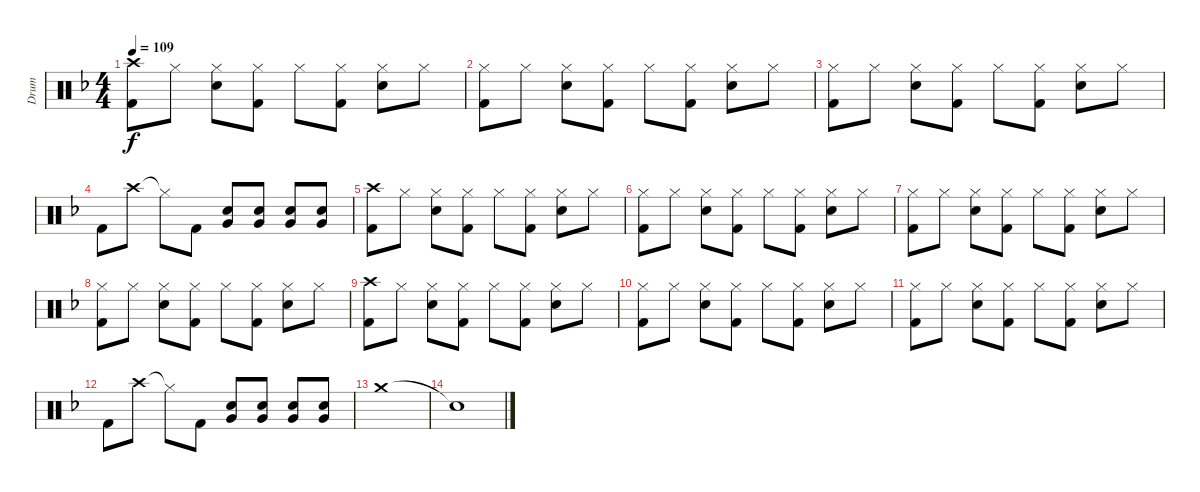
\track ("Drum" "Drum") {instrument percussion}
\staff {score}
\articulation defaults
\ts (4 4)
\tempo 109
\clef neutral
\ks f
("Crash high (hit)" "Kick (hit) 2").8{dy f} "Hi-Hat (closed)".8 ("Hi-Hat (closed)" "Electric Snare (hit)").8 ("Hi-Hat (closed)" "Kick (hit) 2").8 "Hi-Hat (closed)".8 ("Hi-Hat (closed)" "Kick (hit) 2").8 ("Hi-Hat (closed)" "Electric Snare (hit)").8 "Hi-Hat (closed)".8 |
("Hi-Hat (closed)" "Kick (hit) 2").8 "Hi-Hat (closed)".8 ("Hi-Hat (closed)" "Electric Snare (hit)").8 ("Hi-Hat (closed)" "Kick (hit) 2").8 "Hi-Hat (closed)".8 ("Hi-Hat (closed)" "Kick (hit) 2").8 ("Hi-Hat (closed)" "Electric Snare (hit)").8 "Hi-Hat (closed)".8 |
("Hi-Hat (closed)" "Kick (hit) 2").8 "Hi-Hat (closed)".8 ("Hi-Hat (closed)" "Electric Snare (hit)").8 ("Hi-Hat (closed)" "Kick (hit) 2").8 "Hi-Hat (closed)".8 ("Hi-Hat (closed)" "Kick (hit) 2").8 ("Hi-Hat (closed)" "Electric Snare (hit)").8 "Hi-Hat (closed)".8 |
"Kick (hit) 2".8 "Crash high (hit)".8 "Hi-Hat (closed)"{t}.8 "Kick (hit) 2".8 ("Very Low Tom (hit)" "Electric Snare (hit)").8 ("Very Low Tom (hit)" "Electric Snare (hit)").8 ("Very Low Tom (hit)" "Electric Snare (hit)").8 ("Very Low Tom (hit)" "Electric Snare (hit)").8 |
("Crash high (hit)" "Kick (hit) 2").8 "Hi-Hat (closed)".8 ("Hi-Hat (closed)" "Electric Snare (hit)").8 ("Hi-Hat (closed)" "Kick (hit) 2").8 "Hi-Hat (closed)".8 ("Hi-Hat (closed)" "Kick (hit) 2").8 ("Hi-Hat (closed)" "Electric Snare (hit)").8 "Hi-Hat (closed)".8 |
("Hi-Hat (closed)" "Kick (hit) 2").8 "Hi-Hat (closed)".8 ("Hi-Hat (closed)" "Electric Snare (hit)").8 ("Hi-Hat (closed)" "Kick (hit) 2").8 "Hi-Hat (closed)".8 ("Hi-Hat (closed)" "Kick (hit) 2").8 ("Hi-Hat (closed)" "Electric Snare (hit)").8 "Hi-Hat (closed)".8 |
("Hi-Hat (closed)" "Kick (hit) 2").8 "Hi-Hat (closed)".8 ("Hi-Hat (closed)" "Electric Snare (hit)").8 ("Hi-Hat (closed)" "Kick (hit) 2").8 "Hi-Hat (closed)".8 ("Hi-Hat (closed)" "Kick (hit) 2").8 ("Hi-Hat (closed)" "Electric Snare (hit)").8 "Hi-Hat (closed)".8 |
("Hi-Hat (closed)" "Kick (hit) 2").8 "Hi-Hat (closed)".8 ("Hi-Hat (closed)" "Electric Snare (hit)").8 ("Hi-Hat (closed)" "Kick (hit) 2").8 "Hi-Hat (closed)".8 ("Hi-Hat (closed)" "Kick (hit) 2").8 ("Hi-Hat (closed)" "Electric Snare (hit)").8 "Hi-Hat (closed)".8 |
("Crash high (hit)" "Kick (hit) 2").8 "Hi-Hat (closed)".8 ("Hi-Hat (closed)" "Electric Snare (hit)").8 ("Hi-Hat (closed)" "Kick (hit) 2").8 "Hi-Hat (closed)".8 ("Hi-Hat (closed)" "Kick (hit) 2").8 ("Hi-Hat (closed)" "Electric Snare (hit)").8 "Hi-Hat (closed)".8 |
("Hi-Hat (closed)" "Kick (hit) 2").8 "Hi-Hat (closed)".8 ("Hi-Hat (closed)" "Electric Snare (hit)").8 ("Hi-Hat (closed)" "Kick (hit) 2").8 "Hi-Hat (closed)".8 ("Hi-Hat (closed)" "Kick (hit) 2").8 ("Hi-Hat (closed)" "Electric Snare (hit)").8 "Hi-Hat (closed)".8 |
("Hi-Hat (closed)" "Kick (hit) 2").8 "Hi-Hat (closed)".8 ("Hi-Hat (closed)" "Electric Snare (hit)").8 ("Hi-Hat (closed)" "Kick (hit) 2").8 "Hi-Hat (closed)".8 ("Hi-Hat (closed)" "Kick (hit) 2").8 ("Hi-Hat (closed)" "Electric Snare (hit)").8 "Hi-Hat (closed)".8 |
"Kick (hit) 2".8 "Crash high (hit)".8 "Hi-Hat (closed)"{t}.8 "Kick (hit) 2".8 ("Very Low Tom (hit)" "Electric Snare (hit)").8 ("Very Low Tom (hit)" "Electric Snare (hit)").8 ("Very Low Tom (hit)" "Electric Snare (hit)").8 ("Very Low Tom (hit)" "Electric Snare (hit)").8 |
"Crash medium (hit)".1 |
"Snare (hit)"{t}.1
